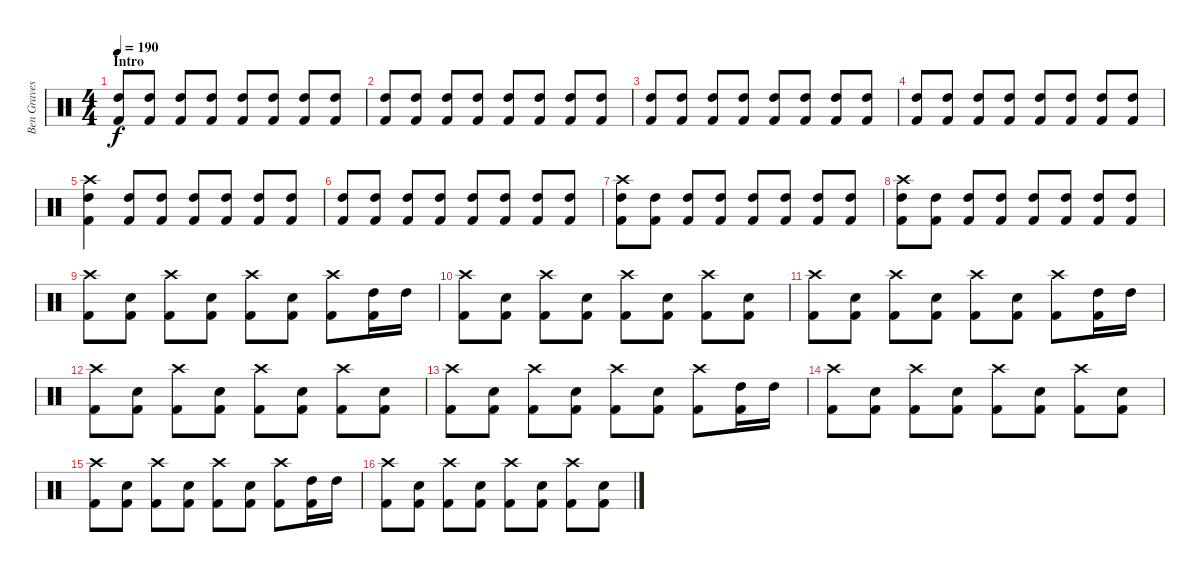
\track ("Ben Graves" "Ben Graves") {instrument percussion}
\staff {score}
\articulation defaults
\ts (4 4)
\section ("" "Intro")
\tempo 190
\clef neutral
\ks c
("High Tom (hit)" "Kick (hit) 2").8{dy f} ("High Tom (hit)" "Kick (hit) 2").8 ("High Tom (hit)" "Kick (hit) 2").8 ("High Tom (hit)" "Kick (hit) 2").8 ("High Tom (hit)" "Kick (hit) 2").8 ("High Tom (hit)" "Kick (hit) 2").8 ("High Tom (hit)" "Kick (hit) 2").8 ("High Tom (hit)" "Kick (hit) 2").8 |
("High Tom (hit)" "Kick (hit) 2").8 ("High Tom (hit)" "Kick (hit) 2").8 ("High Tom (hit)" "Kick (hit) 2").8 ("High Tom (hit)" "Kick (hit) 2").8 ("High Tom (hit)" "Kick (hit) 2").8 ("High Tom (hit)" "Kick (hit) 2").8 ("High Tom (hit)" "Kick (hit) 2").8 ("High Tom (hit)" "Kick (hit) 2").8 |
("High Tom (hit)" "Kick (hit) 2").8 ("High Tom (hit)" "Kick (hit) 2").8 ("High Tom (hit)" "Kick (hit) 2").8 ("High Tom (hit)" "Kick (hit) 2").8 ("High Tom (hit)" "Kick (hit) 2").8 ("High Tom (hit)" "Kick (hit) 2").8 ("High Tom (hit)" "Kick (hit) 2").8 ("High Tom (hit)" "Kick (hit) 2").8 |
("High Tom (hit)" "Kick (hit) 2").8 ("High Tom (hit)" "Kick (hit) 2").8 ("High Tom (hit)" "Kick (hit) 2").8 ("High Tom (hit)" "Kick (hit) 2").8 ("High Tom (hit)" "Kick (hit) 2").8 ("High Tom (hit)" "Kick (hit) 2").8 ("High Tom (hit)" "Kick (hit) 2").8 ("High Tom (hit)" "Kick (hit) 2").8 |
("Crash high (hit)" "High Tom (hit)" "Kick (hit) 2").4 ("High Tom (hit)" "Kick (hit) 2").8 ("High Tom (hit)" "Kick (hit) 2").8 ("High Tom (hit)" "Kick (hit) 2").8 ("High Tom (hit)" "Kick (hit) 2").8 ("High Tom (hit)" "Kick (hit) 2").8 ("High Tom (hit)" "Kick (hit) 2").8 |
("High Tom (hit)" "Kick (hit) 2").8 ("High Tom (hit)" "Kick (hit) 2").8 ("High Tom (hit)" "Kick (hit) 2").8 ("High Tom (hit)" "Kick (hit) 2").8 ("High Tom (hit)" "Kick (hit) 2").8 ("High Tom (hit)" "Kick (hit) 2").8 ("High Tom (hit)" "Kick (hit) 2").8 ("High Tom (hit)" "Kick (hit) 2").8 |
("Crash high (hit)" "High Tom (hit)" "Kick (hit) 2").8 ("High Tom (hit)" "Kick (hit) 2").8 ("High Tom (hit)" "Kick (hit) 2").8 ("High Tom (hit)" "Kick (hit) 2").8 ("High Tom (hit)" "Kick (hit) 2").8 ("High Tom (hit)" "Kick (hit) 2").8 ("High Tom (hit)" "Kick (hit) 2").8 ("High Tom (hit)" "Kick (hit) 2").8 |
("Crash high (hit)" "High Tom (hit)" "Kick (hit) 2").8 ("High Tom (hit)" "Kick (hit) 2").8 ("High Tom (hit)" "Kick (hit) 2").8 ("High Tom (hit)" "Kick (hit) 2").8 ("High Tom (hit)" "Kick (hit) 2").8 ("High Tom (hit)" "Kick (hit) 2").8 ("High Tom (hit)" "Kick (hit) 2").8 ("High Tom (hit)" "Kick (hit) 2").8 |
("Crash high (hit)" "Kick (hit) 2").8 ("Electric Snare (hit)" "Kick (hit) 2").8 ("Crash high (hit)" "Kick (hit) 2").8 ("Electric Snare (hit)" "Kick (hit) 2").8 ("Crash high (hit)" "Kick (hit) 2").8 ("Electric Snare (hit)" "Kick (hit) 2").8 ("Crash high (hit)" "Kick (hit) 2").8 ("High Tom (hit)" "Kick (hit) 2").16 "High Tom (hit)".16 |
("Crash high (hit)" "Kick (hit) 2").8 ("Electric Snare (hit)" "Kick (hit) 2").8 ("Crash high (hit)" "Kick (hit) 2").8 ("Electric Snare (hit)" "Kick (hit) 2").8 ("Crash high (hit)" "Kick (hit) 2").8 ("Electric Snare (hit)" "Kick (hit) 2").8 ("Crash high (hit)" "Kick (hit) 2").8 ("Electric Snare (hit)" "Kick (hit) 2").8 |
("Crash high (hit)" "Kick (hit) 2").8 ("Electric Snare (hit)" "Kick (hit) 2").8 ("Crash high (hit)" "Kick (hit) 2").8 ("Electric Snare (hit)" "Kick (hit) 2").8 ("Crash high (hit)" "Kick (hit) 2").8 ("Electric Snare (hit)" "Kick (hit) 2").8 ("Crash high (hit)" "Kick (hit) 2").8 ("High Tom (hit)" "Kick (hit) 2").16 "High Tom (hit)".16 |
("Crash high (hit)" "Kick (hit) 2").8 ("Electric Snare (hit)" "Kick (hit) 2").8 ("Crash high (hit)" "Kick (hit) 2").8 ("Electric Snare (hit)" "Kick (hit) 2").8 ("Crash high (hit)" "Kick (hit) 2").8 ("Electric Snare (hit)" "Kick (hit) 2").8 ("Crash high (hit)" "Kick (hit) 2").8 ("Electric Snare (hit)" "Kick (hit) 2").8 |
("Crash high (hit)" "Kick (hit) 2").8 ("Electric Snare (hit)" "Kick (hit) 2").8 ("Crash high (hit)" "Kick (hit) 2").8 ("Electric Snare (hit)" "Kick (hit) 2").8 ("Crash high (hit)" "Kick (hit) 2").8 ("Electric Snare (hit)" "Kick (hit) 2").8 ("Crash high (hit)" "Kick (hit) 2").8 ("High Tom (hit)" "Kick (hit) 2").16 "High Tom (hit)".16 |
("Crash high (hit)" "Kick (hit) 2").8 ("Electric Snare (hit)" "Kick (hit) 2").8 ("Crash high (hit)" "Kick (hit) 2").8 ("Electric Snare (hit)" "Kick (hit) 2").8 ("Crash high (hit)" "Kick (hit) 2").8 ("Electric Snare (hit)" "Kick (hit) 2").8 ("Crash high (hit)" "Kick (hit) 2").8 ("Electric Snare (hit)" "Kick (hit) 2").8 |
("Crash high (hit)" "Kick (hit) 2").8 ("Electric Snare (hit)" "Kick (hit) 2").8 ("Crash high (hit)" "Kick (hit) 2").8 ("Electric Snare (hit)" "Kick (hit) 2").8 ("Crash high (hit)" "Kick (hit) 2").8 ("Electric Snare (hit)" "Kick (hit) 2").8 ("Crash high (hit)" "Kick (hit) 2").8 ("High Tom (hit)" "Kick (hit) 2").16 "High Tom (hit)".16 |
("Crash high (hit)" "Kick (hit) 2").8 ("Electric Snare (hit)" "Kick (hit) 2").8 ("Crash high (hit)" "Kick (hit) 2").8 ("Electric Snare (hit)" "Kick (hit) 2").8 ("Crash high (hit)" "Kick (hit) 2").8 ("Electric Snare (hit)" "Kick (hit) 2").8 ("Crash high (hit)" "Kick (hit) 2").8 ("Electric Snare (hit)" "Kick (hit) 2").8
